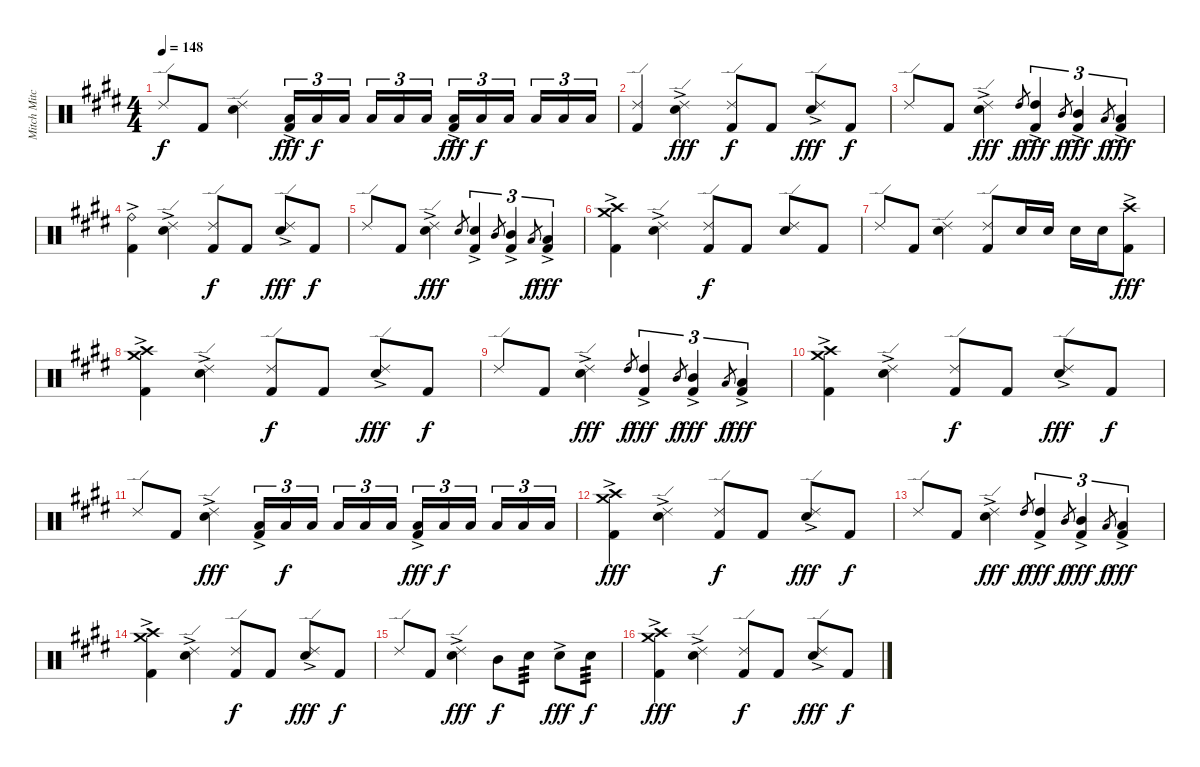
\track ("Mitch Mitchell" "Mitch Mitc") {instrument percussion}
\staff {score}
\articulation defaults
\ts (4 4)
\tempo 148
\clef neutral
\ks e "Ride (edge) 2".8{dy f} "Kick (hit) 2".8
("Ride (edge) 2" "Snare (hit) 2").4 ("Low Tom (hit)"{ac} "Kick (hit) 2"{ac}).16{tu (3 2) dy fff} "Low Tom (hit)".16{tu (3 2) dy f} "Low Tom (hit)".16{tu (3 2)} "Low Tom (hit)".16{tu (3 2)} "Low Tom (hit)".16{tu (3 2)} "Low Tom (hit)".16{tu (3 2)} ("Low Tom (hit)"{ac} "Kick (hit) 2"{ac}).16{tu (3 2) dy fff} "Low Tom (hit)".16{tu (3 2) dy f} "Low Tom (hit)".16{tu (3 2)} "Low Tom (hit)".16{tu (3 2)} "Low Tom (hit)".16{tu (3 2)} "Low Tom (hit)".16{tu (3 2)} |
("Ride (edge) 2" "Kick (hit) 2").4 ("Ride (edge) 2"{ac} "Snare (hit) 2"{ac}).4{dy fff} ("Ride (edge) 2" "Kick (hit) 2").8{dy f} "Kick (hit) 2".8 ("Ride (edge) 2" "Snare (hit) 2"{ac}).8{dy fff} "Kick (hit) 2".8{dy f} |
"Ride (edge) 2".8 "Kick (hit) 2".8 ("Ride (edge) 2"{ac} "Snare (hit) 2"{ac}).4{dy fff} "High Tom (hit)".8{gr dy f} ("High Tom (hit)"{ac} "Kick (hit) 2"{ac}).4{tu (3 2) dy fff} "Mid Tom (hit)".8{gr dy f} ("Mid Tom (hit)"{ac} "Kick (hit) 2"{ac}).4{tu (3 2) dy fff} "Low Tom (hit)".8{gr dy f} ("Low Tom (hit)"{ac} "Kick (hit) 2"{ac}).4{tu (3 2) dy fff} |
("Ride (bell)" "Kick (hit) 2"{ac}).4 ("Ride (edge) 2"{ac} "Snare (hit) 2"{ac}).4 ("Ride (edge) 2" "Kick (hit) 2").8{dy f} "Kick (hit) 2".8 ("Ride (edge) 2"{ac} "Snare (hit) 2"{ac}).8{dy fff} "Kick (hit) 2".8{dy f} |
"Ride (edge) 2".8 "Kick (hit) 2".8 ("Ride (edge) 2"{ac} "Snare (hit) 2"{ac}).4{dy fff} "Snare (hit) 2".8{gr} ("Snare (hit) 2"{ac} "Kick (hit) 2"{ac}).4{tu (3 2)} "Mid Tom (hit)".8{gr} ("Mid Tom (hit)"{ac} "Kick (hit) 2"{ac}).4{tu (3 2)} "Low Tom (hit)".8{gr dy f} ("Low Tom (hit)"{ac} "Kick (hit) 2"{ac}).4{tu (3 2) dy fff} |
("Crash high (hit)"{ac} "Crash medium (hit)"{ac} "Kick (hit) 2"{ac}).4 ("Ride (edge) 2"{ac} "Snare (hit) 2"{ac}).4 ("Ride (edge) 2" "Kick (hit) 2").8{dy f} "Kick (hit) 2".8 ("Ride (edge) 2" "Snare (hit) 2").8 "Kick (hit) 2".8 |
"Ride (edge) 2".8 "Kick (hit) 2".8 ("Ride (edge) 2" "Snare (hit) 2").4 ("Ride (edge) 2" "Kick (hit) 2").8 "Snare (hit) 2".16 "Snare (hit) 2".16 "Snare (hit) 2".16 "Snare (hit) 2".16 ("Crash high (hit)"{ac} "Kick (hit) 2"{ac}).8{dy fff} |
("Crash high (hit)"{ac} "Crash medium (hit)"{ac} "Kick (hit) 2"{ac}).4 ("Ride (edge) 2"{ac} "Snare (hit) 2"{ac}).4 ("Ride (edge) 2" "Kick (hit) 2").8{dy f} "Kick (hit) 2".8 ("Ride (edge) 2"{ac} "Snare (hit) 2"{ac}).8{dy fff} "Kick (hit) 2".8{dy f} |
"Ride (edge) 2".8 "Kick (hit) 2".8 ("Ride (edge) 2"{ac} "Snare (hit) 2"{ac}).4{dy fff} "High Tom (hit)".8{gr dy f} ("High Tom (hit)"{ac} "Kick (hit) 2"{ac}).4{tu (3 2) dy fff} "Mid Tom (hit)".8{gr dy f} ("Mid Tom (hit)"{ac} "Kick (hit) 2"{ac}).4{tu (3 2) dy fff} "Low Tom (hit)".8{gr dy f} ("Low Tom (hit)"{ac} "Kick (hit) 2"{ac}).4{tu (3 2) dy fff} |
("Crash high (hit)"{ac} "Crash medium (hit)"{ac} "Kick (hit) 2"{ac}).4 ("Ride (edge) 2"{ac} "Snare (hit) 2"{ac}).4 ("Ride (edge) 2" "Kick (hit) 2").8{dy f} "Kick (hit) 2".8 ("Ride (edge) 2"{ac} "Snare (hit) 2"{ac}).8{dy fff} "Kick (hit) 2".8{dy f} |
"Ride (edge) 2".8 "Kick (hit) 2".8 ("Ride (edge) 2"{ac} "Snare (hit) 2"{ac}).4{dy fff} ("Low Tom (hit)"{ac} "Kick (hit) 2"{ac}).16{tu (3 2)} "Low Tom (hit)".16{tu (3 2) dy f} "Low Tom (hit)".16{tu (3 2)} "Low Tom (hit)".16{tu (3 2)} "Low Tom (hit)".16{tu (3 2)} "Low Tom (hit)".16{tu (3 2)} ("Low Tom (hit)"{ac} "Kick (hit) 2"{ac}).16{tu (3 2) dy fff} "Low Tom (hit)".16{tu (3 2) dy f} "Low Tom (hit)".16{tu (3 2)} "Low Tom (hit)".16{tu (3 2)} "Low Tom (hit)".16{tu (3 2)} "Low Tom (hit)".16{tu (3 2)} |
("Crash high (hit)"{ac} "Crash medium (hit)"{ac} "Kick (hit) 2"{ac}).4{dy fff} ("Ride (edge) 2"{ac} "Snare (hit) 2"{ac}).4 ("Ride (edge) 2" "Kick (hit) 2").8{dy f} "Kick (hit) 2".8 ("Ride (edge) 2"{ac} "Snare (hit) 2"{ac}).8{dy fff} "Kick (hit) 2".8{dy f} |
"Ride (edge) 2".8 "Kick (hit) 2".8 ("Ride (edge) 2"{ac} "Snare (hit) 2"{ac}).4{dy fff} "High Tom (hit)".8{gr dy f} ("High Tom (hit)"{ac} "Kick (hit) 2"{ac}).4{tu (3 2) dy fff} "Mid Tom (hit)".8{gr dy f} ("Mid Tom (hit)"{ac} "Kick (hit) 2"{ac}).4{tu (3 2) dy fff} "Low Tom (hit)".8{gr dy f} ("Low Tom (hit)"{ac} "Kick (hit) 2"{ac}).4{tu (3 2) dy fff} |
("Crash high (hit)"{ac} "Crash medium (hit)"{ac} "Kick (hit) 2"{ac}).4 ("Ride (edge) 2"{ac} "Snare (hit) 2"{ac}).4 ("Ride (edge) 2" "Kick (hit) 2").8{dy f} "Kick (hit) 2".8 ("Ride (edge) 2"{ac} "Snare (hit) 2"{ac}).8{dy fff} "Kick (hit) 2".8{dy f} |
"Ride (edge) 2".8 "Kick (hit) 2".8 ("Ride (edge) 2"{ac} "Snare (hit) 2"{ac}).4{dy fff} "Mid Tom (hit)".8{dy f} "Snare (hit) 2".8{tp 3} "Snare (hit) 2"{ac}.8{dy fff} "Snare (hit) 2".8{tp 3 dy f} |
("Crash high (hit)"{ac} "Crash medium (hit)"{ac} "Kick (hit) 2"{ac}).4{dy fff} ("Ride (edge) 2"{ac} "Snare (hit) 2"{ac}).4 ("Ride (edge) 2" "Kick (hit) 2").8{dy f} "Kick (hit) 2".8 ("Ride (edge) 2"{ac} "Snare (hit) 2"{ac}).8{dy fff} "Kick (hit) 2".8{dy f}
